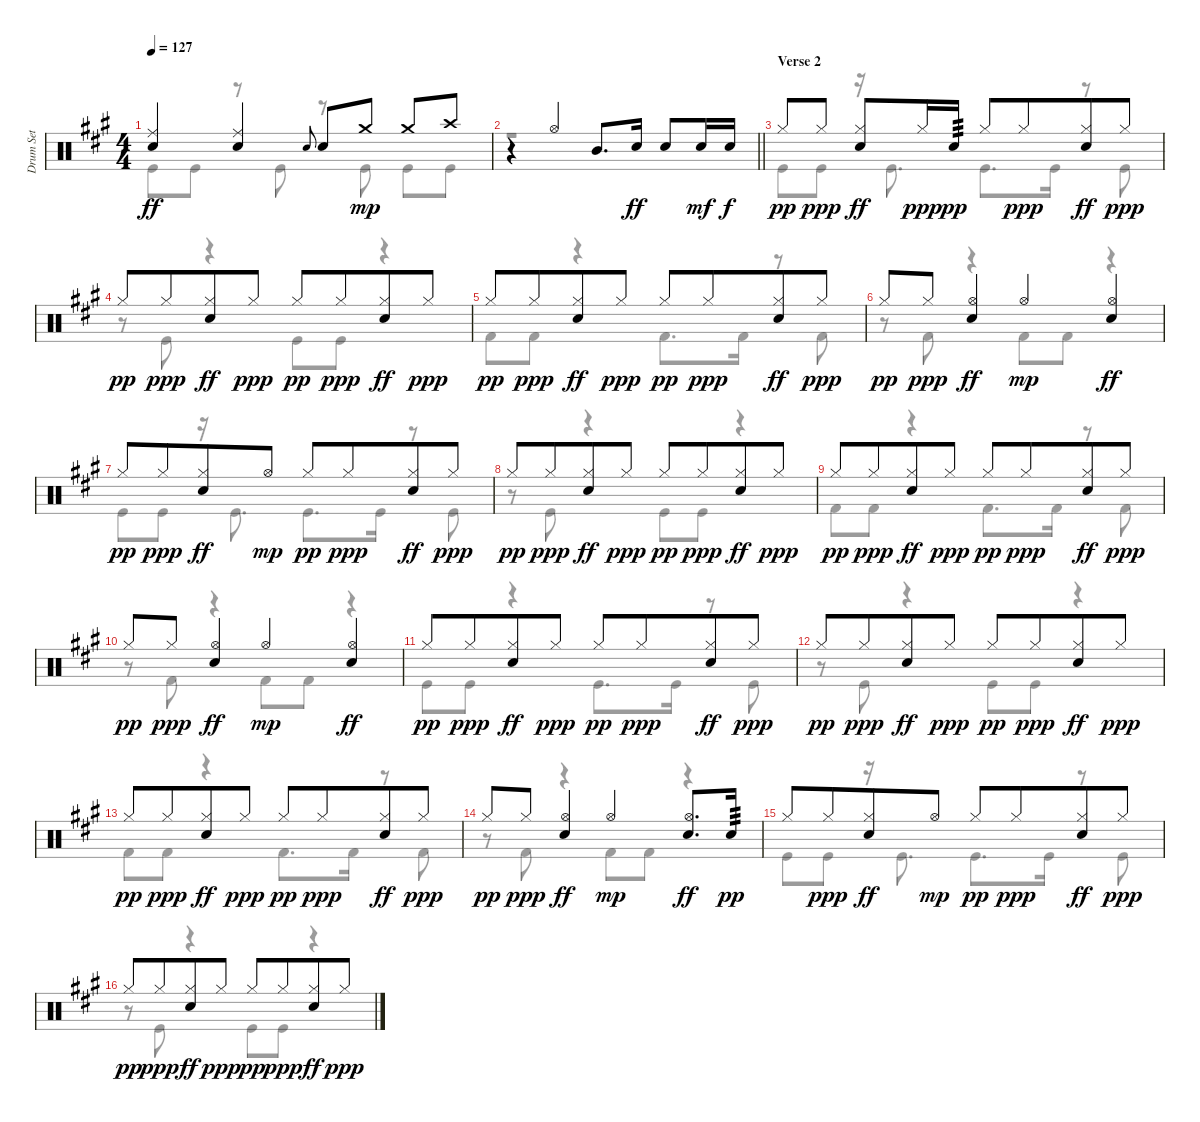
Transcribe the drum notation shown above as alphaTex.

\track ("Drum Set" "Drum Set") {instrument percussion}
\staff {score}
\articulation defaults
\voice
\ts (4 4)
\tempo 127
\clef neutral
\ks a
("Ride (middle)" "Electric Snare (hit)").4{dy ff} ("Ride (middle)" "Electric Snare (hit)").4 "Electric Snare (hit)".8{gr onbeat} "Electric Snare (hit)".8 "Crash medium (hit)".8{dy mp} "Crash medium (hit)".8 "Crash high (hit)".8 |
\barLineRight lightlight
r.4 "Hi-Hat (open)".4{beam Up} "Mid Tom (hit)".8{d beam Up} "Electric Snare (hit)".16{dy ff beam Up} "Electric Snare (hit)".8{beam Up} "Electric Snare (hit)".16{dy mf beam Up} "Electric Snare (hit)".16{dy f beam Up} |
\section ("" "Verse 2")
"Hi-Hat (closed)".8{dy pp} "Hi-Hat (closed)".8{dy ppp beam split} ("Hi-Hat (closed)" "Electric Snare (hit)").8{dy ff} "Hi-Hat (closed)".16{dy ppp} "Electric Snare (hit)".16{tp 3 dy pp} "Hi-Hat (closed)".8 "Hi-Hat (closed)".8{dy ppp beam merge} ("Hi-Hat (closed)" "Electric Snare (hit)").8{dy ff} "Hi-Hat (closed)".8{dy ppp} |
"Hi-Hat (closed)".8{dy pp} "Hi-Hat (closed)".8{dy ppp beam merge} ("Hi-Hat (closed)" "Electric Snare (hit)").8{dy ff} "Hi-Hat (closed)".8{dy ppp} "Hi-Hat (closed)".8{dy pp} "Hi-Hat (closed)".8{dy ppp beam merge} ("Hi-Hat (closed)" "Electric Snare (hit)").8{dy ff} "Hi-Hat (closed)".8{dy ppp} |
"Hi-Hat (closed)".8{dy pp} "Hi-Hat (closed)".8{dy ppp beam merge} ("Hi-Hat (closed)" "Electric Snare (hit)").8{dy ff} "Hi-Hat (closed)".8{dy ppp} "Hi-Hat (closed)".8{dy pp} "Hi-Hat (closed)".8{dy ppp beam merge} ("Hi-Hat (closed)" "Electric Snare (hit)").8{dy ff} "Hi-Hat (closed)".8{dy ppp} |
"Hi-Hat (closed)".8{dy pp} "Hi-Hat (closed)".8{dy ppp beam merge} ("Hi-Hat (open)" "Electric Snare (hit)").4{dy ff} "Hi-Hat (open)".4{dy mp} ("Hi-Hat (open)" "Electric Snare (hit)").4{dy ff} |
"Hi-Hat (closed)".8{dy pp} "Hi-Hat (closed)".8{dy ppp beam merge} ("Hi-Hat (closed)" "Electric Snare (hit)").8{dy ff} "Hi-Hat (open)".8{dy mp} "Hi-Hat (closed)".8{dy pp} "Hi-Hat (closed)".8{dy ppp beam merge} ("Hi-Hat (closed)" "Electric Snare (hit)").8{dy ff} "Hi-Hat (closed)".8{dy ppp} |
"Hi-Hat (closed)".8{dy pp} "Hi-Hat (closed)".8{dy ppp beam merge} ("Hi-Hat (closed)" "Electric Snare (hit)").8{dy ff} "Hi-Hat (closed)".8{dy ppp} "Hi-Hat (closed)".8{dy pp} "Hi-Hat (closed)".8{dy ppp beam merge} ("Hi-Hat (closed)" "Electric Snare (hit)").8{dy ff} "Hi-Hat (closed)".8{dy ppp} |
"Hi-Hat (closed)".8{dy pp} "Hi-Hat (closed)".8{dy ppp beam merge} ("Hi-Hat (closed)" "Electric Snare (hit)").8{dy ff} "Hi-Hat (closed)".8{dy ppp} "Hi-Hat (closed)".8{dy pp} "Hi-Hat (closed)".8{dy ppp beam merge} ("Hi-Hat (closed)" "Electric Snare (hit)").8{dy ff} "Hi-Hat (closed)".8{dy ppp} |
"Hi-Hat (closed)".8{dy pp} "Hi-Hat (closed)".8{dy ppp beam merge} ("Hi-Hat (open)" "Electric Snare (hit)").4{dy ff} "Hi-Hat (open)".4{dy mp} ("Hi-Hat (open)" "Electric Snare (hit)").4{dy ff} |
"Hi-Hat (closed)".8{dy pp} "Hi-Hat (closed)".8{dy ppp beam merge} ("Hi-Hat (closed)" "Electric Snare (hit)").8{dy ff} "Hi-Hat (closed)".8{dy ppp} "Hi-Hat (closed)".8{dy pp} "Hi-Hat (closed)".8{dy ppp beam merge} ("Hi-Hat (closed)" "Electric Snare (hit)").8{dy ff} "Hi-Hat (closed)".8{dy ppp} |
"Hi-Hat (closed)".8{dy pp} "Hi-Hat (closed)".8{dy ppp beam merge} ("Hi-Hat (closed)" "Electric Snare (hit)").8{dy ff} "Hi-Hat (closed)".8{dy ppp} "Hi-Hat (closed)".8{dy pp} "Hi-Hat (closed)".8{dy ppp beam merge} ("Hi-Hat (closed)" "Electric Snare (hit)").8{dy ff} "Hi-Hat (closed)".8{dy ppp} |
"Hi-Hat (closed)".8{dy pp} "Hi-Hat (closed)".8{dy ppp beam merge} ("Hi-Hat (closed)" "Electric Snare (hit)").8{dy ff} "Hi-Hat (closed)".8{dy ppp} "Hi-Hat (closed)".8{dy pp} "Hi-Hat (closed)".8{dy ppp beam merge} ("Hi-Hat (closed)" "Electric Snare (hit)").8{dy ff} "Hi-Hat (closed)".8{dy ppp} |
"Hi-Hat (closed)".8{dy pp} "Hi-Hat (closed)".8{dy ppp beam merge} ("Hi-Hat (open)" "Electric Snare (hit)").4{dy ff} "Hi-Hat (open)".4{dy mp} ("Hi-Hat (open)" "Electric Snare (hit)").8{d dy ff} "Electric Snare (hit)".16{tp 3 dy pp} |
"Hi-Hat (closed)".8 "Hi-Hat (closed)".8{dy ppp beam merge} ("Hi-Hat (closed)" "Electric Snare (hit)").8{dy ff} "Hi-Hat (open)".8{dy mp} "Hi-Hat (closed)".8{dy pp} "Hi-Hat (closed)".8{dy ppp beam merge} ("Hi-Hat (closed)" "Electric Snare (hit)").8{dy ff} "Hi-Hat (closed)".8{dy ppp} |
"Hi-Hat (closed)".8{dy pp} "Hi-Hat (closed)".8{dy ppp beam merge} ("Hi-Hat (closed)" "Electric Snare (hit)").8{dy ff} "Hi-Hat (closed)".8{dy ppp} "Hi-Hat (closed)".8{dy pp} "Hi-Hat (closed)".8{dy ppp beam merge} ("Hi-Hat (closed)" "Electric Snare (hit)").8{dy ff} "Hi-Hat (closed)".8{dy ppp}
\voice
\clef neutral
\ottava regular
\simile none
\ks a "Kick (hit)".8{dy ff} "Kick (hit)".8
r.8 "Kick (hit)".8 r.8 "Kick (hit)".8 "Kick (hit)".8 "Kick (hit)".8 |
\barLineRight lightlight
r.1 |
"Kick (hit)".8 "Kick (hit)".8 r.16 "Kick (hit)".8{d} "Kick (hit)".8{d} "Kick (hit)".16 r.8 "Kick (hit)".8 |
r.8 "Kick (hit)".8 r.4 "Kick (hit)".8 "Kick (hit)".8 r.4 |
"Kick (hit) 2".8 "Kick (hit) 2".8 r.4 "Kick (hit) 2".8{d} "Kick (hit) 2".16 r.8 "Kick (hit) 2".8 |
r.8 "Kick (hit) 2".8 r.4 "Kick (hit) 2".8 "Kick (hit) 2".8 r.4 |
"Kick (hit)".8 "Kick (hit)".8 r.16 "Kick (hit)".8{d} "Kick (hit)".8{d} "Kick (hit)".16 r.8 "Kick (hit)".8 |
r.8 "Kick (hit)".8 r.4 "Kick (hit)".8 "Kick (hit)".8 r.4 |
"Kick (hit) 2".8 "Kick (hit) 2".8 r.4 "Kick (hit) 2".8{d} "Kick (hit) 2".16 r.8 "Kick (hit) 2".8 |
r.8 "Kick (hit) 2".8 r.4 "Kick (hit) 2".8 "Kick (hit) 2".8 r.4 |
"Kick (hit)".8 "Kick (hit)".8 r.4 "Kick (hit)".8{d} "Kick (hit)".16 r.8 "Kick (hit)".8 |
r.8 "Kick (hit)".8 r.4 "Kick (hit)".8 "Kick (hit)".8 r.4 |
"Kick (hit) 2".8 "Kick (hit) 2".8 r.4 "Kick (hit) 2".8{d} "Kick (hit) 2".16 r.8 "Kick (hit) 2".8 |
r.8 "Kick (hit) 2".8 r.4 "Kick (hit) 2".8 "Kick (hit) 2".8 r.4 |
"Kick (hit)".8 "Kick (hit)".8 r.16 "Kick (hit)".8{d} "Kick (hit)".8{d} "Kick (hit)".16 r.8 "Kick (hit)".8 |
r.8 "Kick (hit)".8 r.4 "Kick (hit)".8 "Kick (hit)".8 r.4
